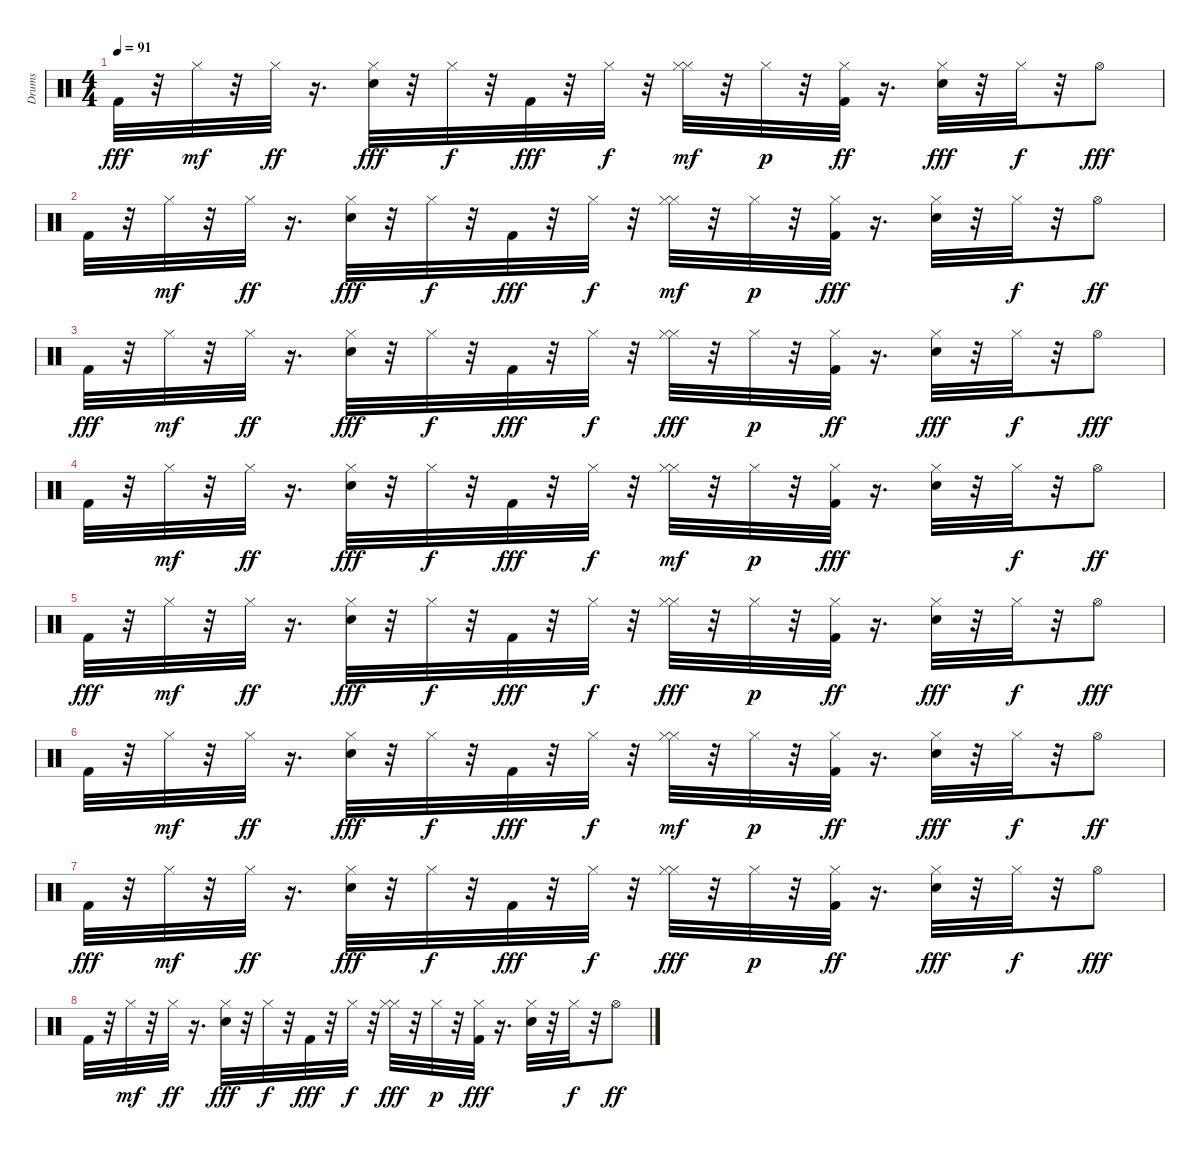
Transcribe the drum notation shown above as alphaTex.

\track ("Drums" "Drums") {instrument percussion}
\staff {score}
\articulation defaults
\ts (4 4)
\tempo 91
\clef neutral
\ks c "Kick (hit) 2".32{dy fff}
r.32 "Hi-Hat (closed)".32{dy mf} r.32 "Hi-Hat (closed)".32{dy ff} r.16{d} ("Snare (hit) 2" "Hi-Hat (closed)").32{dy fff} r.32 "Hi-Hat (closed)".32{dy f} r.32 "Kick (hit) 2".32{dy fff} r.32 "Hi-Hat (closed)".32{dy f} r.32 ("Hi-Hat (closed)" "Hi-Hat (closed)").32{dy mf} r.32 "Hi-Hat (closed)".32{dy p} r.32 ("Kick (hit) 2" "Hi-Hat (closed)").32{dy ff} r.16{d} ("Hi-Hat (closed)" "Snare (hit) 2").32{dy fff} r.32 "Hi-Hat (closed)".32{dy f} r.32 "Hi-Hat (open)".8{dy fff} |
"Kick (hit) 2".32 r.32 "Hi-Hat (closed)".32{dy mf} r.32 "Hi-Hat (closed)".32{dy ff} r.16{d} ("Snare (hit) 2" "Hi-Hat (closed)").32{dy fff} r.32 "Hi-Hat (closed)".32{dy f} r.32 "Kick (hit) 2".32{dy fff} r.32 "Hi-Hat (closed)".32{dy f} r.32 ("Hi-Hat (closed)" "Hi-Hat (closed)").32{dy mf} r.32 "Hi-Hat (closed)".32{dy p} r.32 ("Hi-Hat (closed)" "Kick (hit) 2").32{dy fff} r.16{d} ("Snare (hit) 2" "Hi-Hat (closed)").32 r.32 "Hi-Hat (closed)".32{dy f} r.32 "Hi-Hat (open)".8{dy ff} |
"Kick (hit) 2".32{dy fff} r.32 "Hi-Hat (closed)".32{dy mf} r.32 "Hi-Hat (closed)".32{dy ff} r.16{d} ("Hi-Hat (closed)" "Snare (hit) 2").32{dy fff} r.32 "Hi-Hat (closed)".32{dy f} r.32 "Kick (hit) 2".32{dy fff} r.32 "Hi-Hat (closed)".32{dy f} r.32 ("Hi-Hat (closed)" "Hi-Hat (closed)").32{dy fff} r.32 "Hi-Hat (closed)".32{dy p} r.32 ("Kick (hit) 2" "Hi-Hat (closed)").32{dy ff} r.16{d} ("Snare (hit) 2" "Hi-Hat (closed)").32{dy fff} r.32 "Hi-Hat (closed)".32{dy f} r.32 "Hi-Hat (open)".8{dy fff} |
"Kick (hit) 2".32 r.32 "Hi-Hat (closed)".32{dy mf} r.32 "Hi-Hat (closed)".32{dy ff} r.16{d} ("Snare (hit) 2" "Hi-Hat (closed)").32{dy fff} r.32 "Hi-Hat (closed)".32{dy f} r.32 "Kick (hit) 2".32{dy fff} r.32 "Hi-Hat (closed)".32{dy f} r.32 ("Hi-Hat (closed)" "Hi-Hat (closed)").32{dy mf} r.32 "Hi-Hat (closed)".32{dy p} r.32 ("Hi-Hat (closed)" "Kick (hit) 2").32{dy fff} r.16{d} ("Snare (hit) 2" "Hi-Hat (closed)").32 r.32 "Hi-Hat (closed)".32{dy f} r.32 "Hi-Hat (open)".8{dy ff} |
"Kick (hit) 2".32{dy fff} r.32 "Hi-Hat (closed)".32{dy mf} r.32 "Hi-Hat (closed)".32{dy ff} r.16{d} ("Hi-Hat (closed)" "Snare (hit) 2").32{dy fff} r.32 "Hi-Hat (closed)".32{dy f} r.32 "Kick (hit) 2".32{dy fff} r.32 "Hi-Hat (closed)".32{dy f} r.32 ("Hi-Hat (closed)" "Hi-Hat (closed)").32{dy fff} r.32 "Hi-Hat (closed)".32{dy p} r.32 ("Kick (hit) 2" "Hi-Hat (closed)").32{dy ff} r.16{d} ("Hi-Hat (closed)" "Snare (hit) 2").32{dy fff} r.32 "Hi-Hat (closed)".32{dy f} r.32 "Hi-Hat (open)".8{dy fff} |
"Kick (hit) 2".32 r.32 "Hi-Hat (closed)".32{dy mf} r.32 "Hi-Hat (closed)".32{dy ff} r.16{d} ("Snare (hit) 2" "Hi-Hat (closed)").32{dy fff} r.32 "Hi-Hat (closed)".32{dy f} r.32 "Kick (hit) 2".32{dy fff} r.32 "Hi-Hat (closed)".32{dy f} r.32 ("Hi-Hat (closed)" "Hi-Hat (closed)").32{dy mf} r.32 "Hi-Hat (closed)".32{dy p} r.32 ("Kick (hit) 2" "Hi-Hat (closed)").32{dy ff} r.16{d} ("Hi-Hat (closed)" "Snare (hit) 2").32{dy fff} r.32 "Hi-Hat (closed)".32{dy f} r.32 "Hi-Hat (open)".8{dy ff} |
"Kick (hit) 2".32{dy fff} r.32 "Hi-Hat (closed)".32{dy mf} r.32 "Hi-Hat (closed)".32{dy ff} r.16{d} ("Hi-Hat (closed)" "Snare (hit) 2").32{dy fff} r.32 "Hi-Hat (closed)".32{dy f} r.32 "Kick (hit) 2".32{dy fff} r.32 "Hi-Hat (closed)".32{dy f} r.32 ("Hi-Hat (closed)" "Hi-Hat (closed)").32{dy fff} r.32 "Hi-Hat (closed)".32{dy p} r.32 ("Kick (hit) 2" "Hi-Hat (closed)").32{dy ff} r.16{d} ("Snare (hit) 2" "Hi-Hat (closed)").32{dy fff} r.32 "Hi-Hat (closed)".32{dy f} r.32 "Hi-Hat (open)".8{dy fff} |
"Kick (hit) 2".32 r.32 "Hi-Hat (closed)".32{dy mf} r.32 "Hi-Hat (closed)".32{dy ff} r.16{d} ("Hi-Hat (closed)" "Snare (hit) 2").32{dy fff} r.32 "Hi-Hat (closed)".32{dy f} r.32 "Kick (hit) 2".32{dy fff} r.32 "Hi-Hat (closed)".32{dy f} r.32 ("Hi-Hat (closed)" "Hi-Hat (closed)").32{dy fff} r.32 "Hi-Hat (closed)".32{dy p} r.32 ("Hi-Hat (closed)" "Kick (hit) 2").32{dy fff} r.16{d} ("Snare (hit) 2" "Hi-Hat (closed)").32 r.32 "Hi-Hat (closed)".32{dy f} r.32 "Hi-Hat (open)".8{dy ff}
